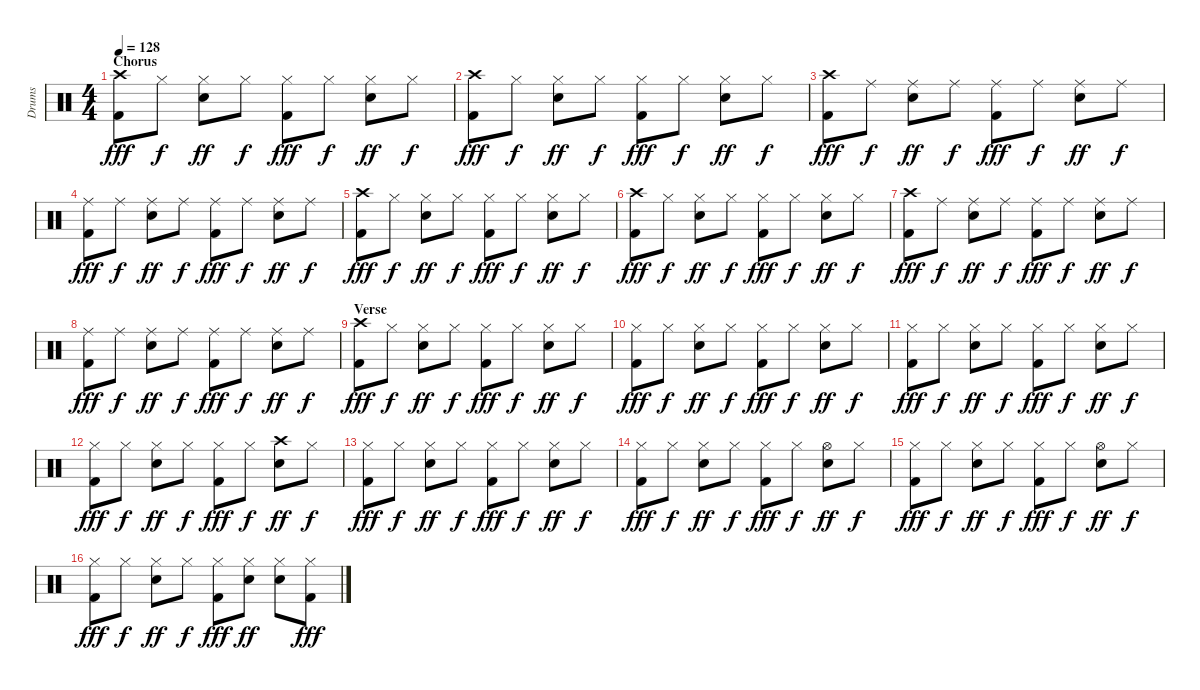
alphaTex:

\track ("Drums" "Drums") {instrument percussion}
\staff {score}
\articulation defaults
\ts (4 4)
\section ("" "Chorus")
\tempo 128
\clef neutral
\ks c
("Crash high (hit)" "Kick (hit) 2").8{dy fff} "Hi-Hat (closed)".8{dy f} ("Hi-Hat (closed)" "Electric Snare (hit)").8{dy ff} "Hi-Hat (closed)".8{dy f} ("Hi-Hat (closed)" "Kick (hit) 2").8{dy fff} "Hi-Hat (closed)".8{dy f} ("Hi-Hat (closed)" "Electric Snare (hit)").8{dy ff} "Hi-Hat (closed)".8{dy f} |
("Crash high (hit)" "Kick (hit) 2").8{dy fff} "Hi-Hat (closed)".8{dy f} ("Hi-Hat (closed)" "Electric Snare (hit)").8{dy ff} "Hi-Hat (closed)".8{dy f} ("Hi-Hat (closed)" "Kick (hit) 2").8{dy fff} "Hi-Hat (closed)".8{dy f} ("Hi-Hat (closed)" "Electric Snare (hit)").8{dy ff} "Hi-Hat (closed)".8{dy f} |
("Crash high (hit)" "Kick (hit) 2").8{dy fff} "Ride (middle)".8{dy f} ("Ride (middle)" "Electric Snare (hit)").8{dy ff} "Ride (middle)".8{dy f} ("Ride (middle)" "Kick (hit) 2").8{dy fff} "Ride (middle)".8{dy f} ("Ride (middle)" "Electric Snare (hit)").8{dy ff} "Ride (middle)".8{dy f} |
("Ride (middle)" "Kick (hit) 2").8{dy fff} "Ride (middle)".8{dy f} ("Ride (middle)" "Electric Snare (hit)").8{dy ff} "Ride (middle)".8{dy f} ("Ride (middle)" "Kick (hit) 2").8{dy fff} "Ride (middle)".8{dy f} ("Ride (middle)" "Electric Snare (hit)").8{dy ff} "Ride (middle)".8{dy f} |
("Crash high (hit)" "Kick (hit) 2").8{dy fff} "Hi-Hat (closed)".8{dy f} ("Hi-Hat (closed)" "Electric Snare (hit)").8{dy ff} "Hi-Hat (closed)".8{dy f} ("Hi-Hat (closed)" "Kick (hit) 2").8{dy fff} "Hi-Hat (closed)".8{dy f} ("Hi-Hat (closed)" "Electric Snare (hit)").8{dy ff} "Hi-Hat (closed)".8{dy f} |
("Crash high (hit)" "Kick (hit) 2").8{dy fff} "Hi-Hat (closed)".8{dy f} ("Hi-Hat (closed)" "Electric Snare (hit)").8{dy ff} "Hi-Hat (closed)".8{dy f} ("Hi-Hat (closed)" "Kick (hit) 2").8{dy fff} "Hi-Hat (closed)".8{dy f} ("Hi-Hat (closed)" "Electric Snare (hit)").8{dy ff} "Hi-Hat (closed)".8{dy f} |
("Crash high (hit)" "Kick (hit) 2").8{dy fff} "Ride (middle)".8{dy f} ("Ride (middle)" "Electric Snare (hit)").8{dy ff} "Ride (middle)".8{dy f} ("Ride (middle)" "Kick (hit) 2").8{dy fff} "Ride (middle)".8{dy f} ("Ride (middle)" "Electric Snare (hit)").8{dy ff} "Ride (middle)".8{dy f} |
("Ride (middle)" "Kick (hit) 2").8{dy fff} "Ride (middle)".8{dy f} ("Ride (middle)" "Electric Snare (hit)").8{dy ff} "Ride (middle)".8{dy f} ("Ride (middle)" "Kick (hit) 2").8{dy fff} "Ride (middle)".8{dy f} ("Ride (middle)" "Electric Snare (hit)").8{dy ff} "Ride (middle)".8{dy f} |
\section ("" "Verse")
("Crash high (hit)" "Kick (hit) 2").8{dy fff} "Hi-Hat (closed)".8{dy f} ("Hi-Hat (closed)" "Electric Snare (hit)").8{dy ff} "Hi-Hat (closed)".8{dy f} ("Hi-Hat (closed)" "Kick (hit) 2").8{dy fff} "Hi-Hat (closed)".8{dy f} ("Hi-Hat (closed)" "Electric Snare (hit)").8{dy ff} "Hi-Hat (closed)".8{dy f} |
("Hi-Hat (closed)" "Kick (hit) 2").8{dy fff} "Hi-Hat (closed)".8{dy f} ("Hi-Hat (closed)" "Electric Snare (hit)").8{dy ff} "Hi-Hat (closed)".8{dy f} ("Hi-Hat (closed)" "Kick (hit) 2").8{dy fff} "Hi-Hat (closed)".8{dy f} ("Hi-Hat (closed)" "Electric Snare (hit)").8{dy ff} "Hi-Hat (closed)".8{dy f} |
("Hi-Hat (closed)" "Kick (hit) 2").8{dy fff} "Hi-Hat (closed)".8{dy f} ("Hi-Hat (closed)" "Electric Snare (hit)").8{dy ff} "Hi-Hat (closed)".8{dy f} ("Hi-Hat (closed)" "Kick (hit) 2").8{dy fff} "Hi-Hat (closed)".8{dy f} ("Hi-Hat (closed)" "Electric Snare (hit)").8{dy ff} "Hi-Hat (closed)".8{dy f} |
("Hi-Hat (closed)" "Kick (hit) 2").8{dy fff} "Hi-Hat (closed)".8{dy f} ("Hi-Hat (closed)" "Electric Snare (hit)").8{dy ff} "Hi-Hat (closed)".8{dy f} ("Hi-Hat (closed)" "Kick (hit) 2").8{dy fff} "Hi-Hat (closed)".8{dy f} ("Crash high (hit)" "Electric Snare (hit)").8{dy ff} "Hi-Hat (closed)".8{dy f} |
("Hi-Hat (closed)" "Kick (hit) 2").8{dy fff} "Hi-Hat (closed)".8{dy f} ("Hi-Hat (closed)" "Electric Snare (hit)").8{dy ff} "Hi-Hat (closed)".8{dy f} ("Hi-Hat (closed)" "Kick (hit) 2").8{dy fff} "Hi-Hat (closed)".8{dy f} ("Hi-Hat (closed)" "Electric Snare (hit)").8{dy ff} "Hi-Hat (closed)".8{dy f} |
("Hi-Hat (closed)" "Kick (hit) 2").8{dy fff} "Hi-Hat (closed)".8{dy f} ("Hi-Hat (closed)" "Electric Snare (hit)").8{dy ff} "Hi-Hat (closed)".8{dy f} ("Hi-Hat (closed)" "Kick (hit) 2").8{dy fff} "Hi-Hat (closed)".8{dy f} ("Hi-Hat (open)" "Electric Snare (hit)").8{dy ff} "Hi-Hat (closed)".8{dy f} |
("Hi-Hat (closed)" "Kick (hit) 2").8{dy fff} "Hi-Hat (closed)".8{dy f} ("Hi-Hat (closed)" "Electric Snare (hit)").8{dy ff} "Hi-Hat (closed)".8{dy f} ("Hi-Hat (closed)" "Kick (hit) 2").8{dy fff} "Hi-Hat (closed)".8{dy f} ("Hi-Hat (open)" "Electric Snare (hit)").8{dy ff} "Hi-Hat (closed)".8{dy f} |
("Hi-Hat (closed)" "Kick (hit) 2").8{dy fff} "Hi-Hat (closed)".8{dy f} ("Hi-Hat (closed)" "Electric Snare (hit)").8{dy ff} "Hi-Hat (closed)".8{dy f} ("Hi-Hat (closed)" "Kick (hit) 2").8{dy fff} ("Hi-Hat (closed)" "Electric Snare (hit)").8{dy ff} ("Hi-Hat (closed)" "Electric Snare (hit)").8 ("Hi-Hat (closed)" "Kick (hit) 2").8{dy fff}
